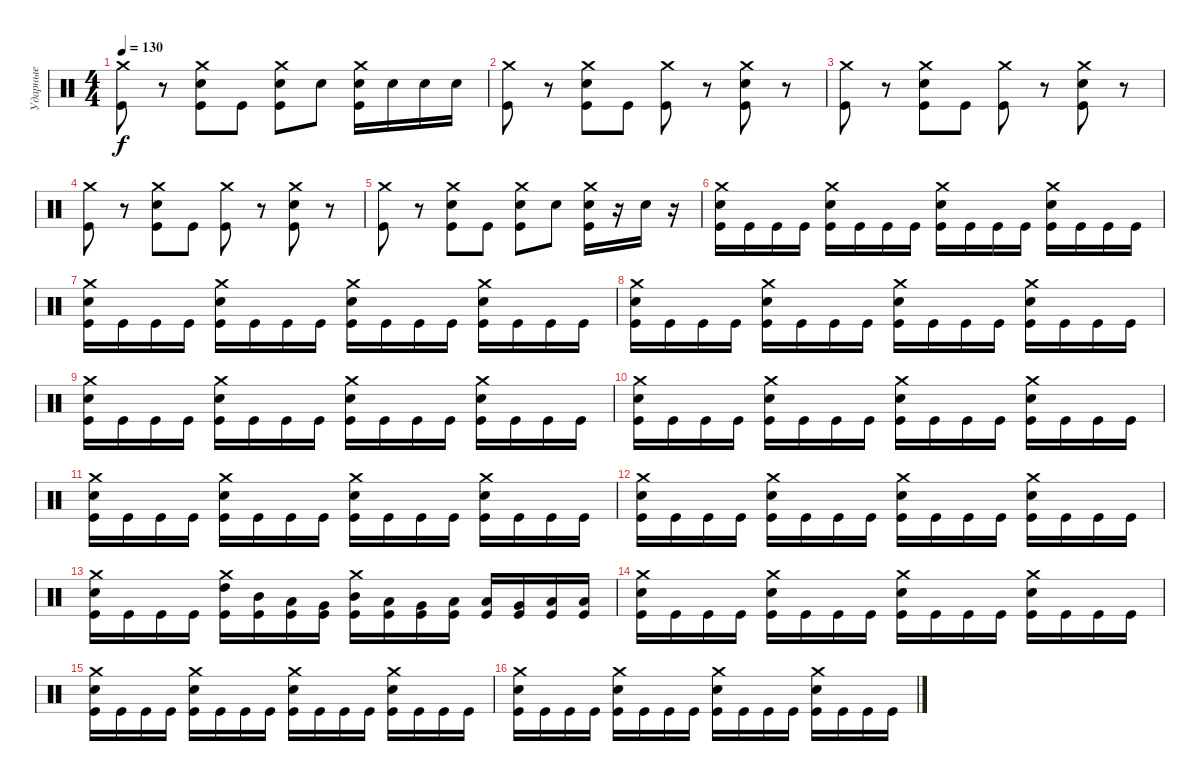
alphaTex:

\track ("Ударные" "Ударные") {instrument percussion}
\staff {score}
\articulation defaults
\ts (4 4)
\tempo 130
\clef neutral
\ks c
("Crash medium (hit)" "Kick (hit)").8{dy f} r.8 ("Crash medium (hit)" "Electric Snare (hit)" "Kick (hit)").8 "Kick (hit)".8 ("Crash medium (hit)" "Electric Snare (hit)" "Kick (hit)").8 "Electric Snare (hit)".8 ("Crash medium (hit)" "Electric Snare (hit)" "Kick (hit)").16 "Electric Snare (hit)".16 "Electric Snare (hit)".16 "Electric Snare (hit)".16 |
("Crash medium (hit)" "Kick (hit)").8 r.8 ("Crash medium (hit)" "Electric Snare (hit)" "Kick (hit)").8 "Kick (hit)".8 ("Crash medium (hit)" "Kick (hit)").8 r.8 ("Crash medium (hit)" "Electric Snare (hit)" "Kick (hit)").8 r.8 |
("Crash medium (hit)" "Kick (hit)").8 r.8 ("Crash medium (hit)" "Electric Snare (hit)" "Kick (hit)").8 "Kick (hit)".8 ("Crash medium (hit)" "Kick (hit)").8 r.8 ("Crash medium (hit)" "Electric Snare (hit)" "Kick (hit)").8 r.8 |
("Crash medium (hit)" "Kick (hit)").8 r.8 ("Crash medium (hit)" "Electric Snare (hit)" "Kick (hit)").8 "Kick (hit)".8 ("Crash medium (hit)" "Kick (hit)").8 r.8 ("Crash medium (hit)" "Electric Snare (hit)" "Kick (hit)").8 r.8 |
("Crash medium (hit)" "Kick (hit)").8 r.8 ("Crash medium (hit)" "Electric Snare (hit)" "Kick (hit)").8 "Kick (hit)".8 ("Crash medium (hit)" "Electric Snare (hit)" "Kick (hit)").8 "Electric Snare (hit)".8 ("Crash medium (hit)" "Electric Snare (hit)" "Kick (hit)").16 r.16 "Electric Snare (hit)".16 r.16 |
("Crash medium (hit)" "Electric Snare (hit)" "Kick (hit)").16 "Kick (hit)".16 "Kick (hit)".16 "Kick (hit)".16 ("Crash medium (hit)" "Electric Snare (hit)" "Kick (hit)").16 "Kick (hit)".16 "Kick (hit)".16 "Kick (hit)".16 ("Crash medium (hit)" "Electric Snare (hit)" "Kick (hit)").16 "Kick (hit)".16 "Kick (hit)".16 "Kick (hit)".16 ("Crash medium (hit)" "Electric Snare (hit)" "Kick (hit)").16 "Kick (hit)".16 "Kick (hit)".16 "Kick (hit)".16 |
("Crash medium (hit)" "Electric Snare (hit)" "Kick (hit)").16 "Kick (hit)".16 "Kick (hit)".16 "Kick (hit)".16 ("Crash medium (hit)" "Electric Snare (hit)" "Kick (hit)").16 "Kick (hit)".16 "Kick (hit)".16 "Kick (hit)".16 ("Crash medium (hit)" "Electric Snare (hit)" "Kick (hit)").16 "Kick (hit)".16 "Kick (hit)".16 "Kick (hit)".16 ("Crash medium (hit)" "Electric Snare (hit)" "Kick (hit)").16 "Kick (hit)".16 "Kick (hit)".16 "Kick (hit)".16 |
("Crash medium (hit)" "Electric Snare (hit)" "Kick (hit)").16 "Kick (hit)".16 "Kick (hit)".16 "Kick (hit)".16 ("Crash medium (hit)" "Electric Snare (hit)" "Kick (hit)").16 "Kick (hit)".16 "Kick (hit)".16 "Kick (hit)".16 ("Crash medium (hit)" "Electric Snare (hit)" "Kick (hit)").16 "Kick (hit)".16 "Kick (hit)".16 "Kick (hit)".16 ("Crash medium (hit)" "Electric Snare (hit)" "Kick (hit)").16 "Kick (hit)".16 "Kick (hit)".16 "Kick (hit)".16 |
("Crash medium (hit)" "Electric Snare (hit)" "Kick (hit)").16 "Kick (hit)".16 "Kick (hit)".16 "Kick (hit)".16 ("Crash medium (hit)" "Electric Snare (hit)" "Kick (hit)").16 "Kick (hit)".16 "Kick (hit)".16 "Kick (hit)".16 ("Crash medium (hit)" "Electric Snare (hit)" "Kick (hit)").16 "Kick (hit)".16 "Kick (hit)".16 "Kick (hit)".16 ("Crash medium (hit)" "Electric Snare (hit)" "Kick (hit)").16 "Kick (hit)".16 "Kick (hit)".16 "Kick (hit)".16 |
("Crash medium (hit)" "Electric Snare (hit)" "Kick (hit)").16 "Kick (hit)".16 "Kick (hit)".16 "Kick (hit)".16 ("Crash medium (hit)" "Electric Snare (hit)" "Kick (hit)").16 "Kick (hit)".16 "Kick (hit)".16 "Kick (hit)".16 ("Crash medium (hit)" "Electric Snare (hit)" "Kick (hit)").16 "Kick (hit)".16 "Kick (hit)".16 "Kick (hit)".16 ("Crash medium (hit)" "Electric Snare (hit)" "Kick (hit)").16 "Kick (hit)".16 "Kick (hit)".16 "Kick (hit)".16 |
("Crash medium (hit)" "Electric Snare (hit)" "Kick (hit)").16 "Kick (hit)".16 "Kick (hit)".16 "Kick (hit)".16 ("Crash medium (hit)" "Electric Snare (hit)" "Kick (hit)").16 "Kick (hit)".16 "Kick (hit)".16 "Kick (hit)".16 ("Crash medium (hit)" "Electric Snare (hit)" "Kick (hit)").16 "Kick (hit)".16 "Kick (hit)".16 "Kick (hit)".16 ("Crash medium (hit)" "Electric Snare (hit)" "Kick (hit)").16 "Kick (hit)".16 "Kick (hit)".16 "Kick (hit)".16 |
("Crash medium (hit)" "Electric Snare (hit)" "Kick (hit)").16 "Kick (hit)".16 "Kick (hit)".16 "Kick (hit)".16 ("Crash medium (hit)" "Electric Snare (hit)" "Kick (hit)").16 "Kick (hit)".16 "Kick (hit)".16 "Kick (hit)".16 ("Crash medium (hit)" "Electric Snare (hit)" "Kick (hit)").16 "Kick (hit)".16 "Kick (hit)".16 "Kick (hit)".16 ("Crash medium (hit)" "Electric Snare (hit)" "Kick (hit)").16 "Kick (hit)".16 "Kick (hit)".16 "Kick (hit)".16 |
("Crash medium (hit)" "Electric Snare (hit)" "Kick (hit)").16 "Kick (hit)".16 "Kick (hit)".16 "Kick (hit)".16 ("Crash medium (hit)" "High Tom (hit)" "Kick (hit)").16 ("Mid Tom (hit)" "Kick (hit)").16 ("Low Tom (hit)" "Kick (hit)").16 ("Very Low Tom (hit)" "Kick (hit)").16 ("Crash medium (hit)" "Mid Tom (hit)" "Kick (hit)").16 ("Low Tom (hit)" "Kick (hit)").16 ("Very Low Tom (hit)" "Kick (hit)").16 ("Low Floor Tom (hit)" "Kick (hit)").16 ("Low Tom (hit)" "Kick (hit)").16 ("Very Low Tom (hit)" "Kick (hit)").16 ("Low Floor Tom (hit)" "Kick (hit)").16 ("Low Floor Tom (hit)" "Kick (hit)").16 |
("Crash medium (hit)" "Electric Snare (hit)" "Kick (hit)").16 "Kick (hit)".16 "Kick (hit)".16 "Kick (hit)".16 ("Crash medium (hit)" "Electric Snare (hit)" "Kick (hit)").16 "Kick (hit)".16 "Kick (hit)".16 "Kick (hit)".16 ("Crash medium (hit)" "Electric Snare (hit)" "Kick (hit)").16 "Kick (hit)".16 "Kick (hit)".16 "Kick (hit)".16 ("Crash medium (hit)" "Electric Snare (hit)" "Kick (hit)").16 "Kick (hit)".16 "Kick (hit)".16 "Kick (hit)".16 |
("Crash medium (hit)" "Electric Snare (hit)" "Kick (hit)").16 "Kick (hit)".16 "Kick (hit)".16 "Kick (hit)".16 ("Crash medium (hit)" "Electric Snare (hit)" "Kick (hit)").16 "Kick (hit)".16 "Kick (hit)".16 "Kick (hit)".16 ("Crash medium (hit)" "Electric Snare (hit)" "Kick (hit)").16 "Kick (hit)".16 "Kick (hit)".16 "Kick (hit)".16 ("Crash medium (hit)" "Electric Snare (hit)" "Kick (hit)").16 "Kick (hit)".16 "Kick (hit)".16 "Kick (hit)".16 |
("Crash medium (hit)" "Electric Snare (hit)" "Kick (hit)").16 "Kick (hit)".16 "Kick (hit)".16 "Kick (hit)".16 ("Crash medium (hit)" "Electric Snare (hit)" "Kick (hit)").16 "Kick (hit)".16 "Kick (hit)".16 "Kick (hit)".16 ("Crash medium (hit)" "Electric Snare (hit)" "Kick (hit)").16 "Kick (hit)".16 "Kick (hit)".16 "Kick (hit)".16 ("Crash medium (hit)" "Electric Snare (hit)" "Kick (hit)").16 "Kick (hit)".16 "Kick (hit)".16 "Kick (hit)".16
